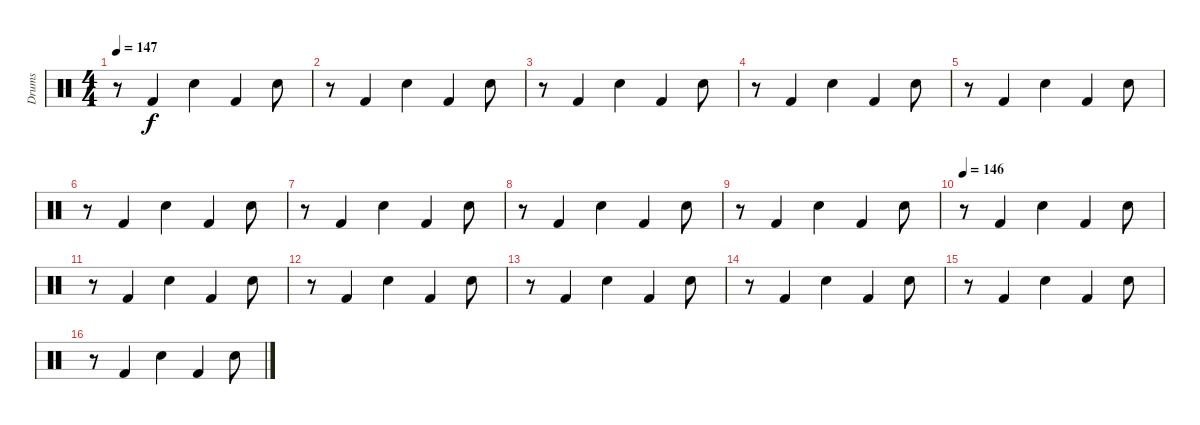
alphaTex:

\track ("Drums" "Drums") {instrument percussion}
\staff {score}
\articulation defaults
\ts (4 4)
\tempo 147
\clef neutral
\ks c
r.8{dy f} "Kick (hit) 2".4 "Snare (hit) 2".4 "Kick (hit) 2".4 "Snare (hit) 2".8 |
r.8 "Kick (hit) 2".4 "Snare (hit) 2".4 "Kick (hit) 2".4 "Snare (hit) 2".8 |
r.8 "Kick (hit) 2".4 "Snare (hit) 2".4 "Kick (hit) 2".4 "Snare (hit) 2".8 |
r.8 "Kick (hit) 2".4 "Snare (hit) 2".4 "Kick (hit) 2".4 "Snare (hit) 2".8 |
r.8 "Kick (hit) 2".4 "Snare (hit) 2".4 "Kick (hit) 2".4 "Snare (hit) 2".8 |
r.8 "Kick (hit) 2".4 "Snare (hit) 2".4 "Kick (hit) 2".4 "Snare (hit) 2".8 |
r.8 "Kick (hit) 2".4 "Snare (hit) 2".4 "Kick (hit) 2".4 "Snare (hit) 2".8 |
r.8 "Kick (hit) 2".4 "Snare (hit) 2".4 "Kick (hit) 2".4 "Snare (hit) 2".8 |
r.8 "Kick (hit) 2".4 "Snare (hit) 2".4 "Kick (hit) 2".4 "Snare (hit) 2".8 |
\tempo 146
r.8 "Kick (hit) 2".4 "Snare (hit) 2".4 "Kick (hit) 2".4 "Snare (hit) 2".8 |
r.8 "Kick (hit) 2".4 "Snare (hit) 2".4 "Kick (hit) 2".4 "Snare (hit) 2".8 |
r.8 "Kick (hit) 2".4 "Snare (hit) 2".4 "Kick (hit) 2".4 "Snare (hit) 2".8 |
r.8 "Kick (hit) 2".4 "Snare (hit) 2".4 "Kick (hit) 2".4 "Snare (hit) 2".8 |
r.8 "Kick (hit) 2".4 "Snare (hit) 2".4 "Kick (hit) 2".4 "Snare (hit) 2".8 |
r.8 "Kick (hit) 2".4 "Snare (hit) 2".4 "Kick (hit) 2".4 "Snare (hit) 2".8 |
r.8 "Kick (hit) 2".4 "Snare (hit) 2".4 "Kick (hit) 2".4 "Snare (hit) 2".8
